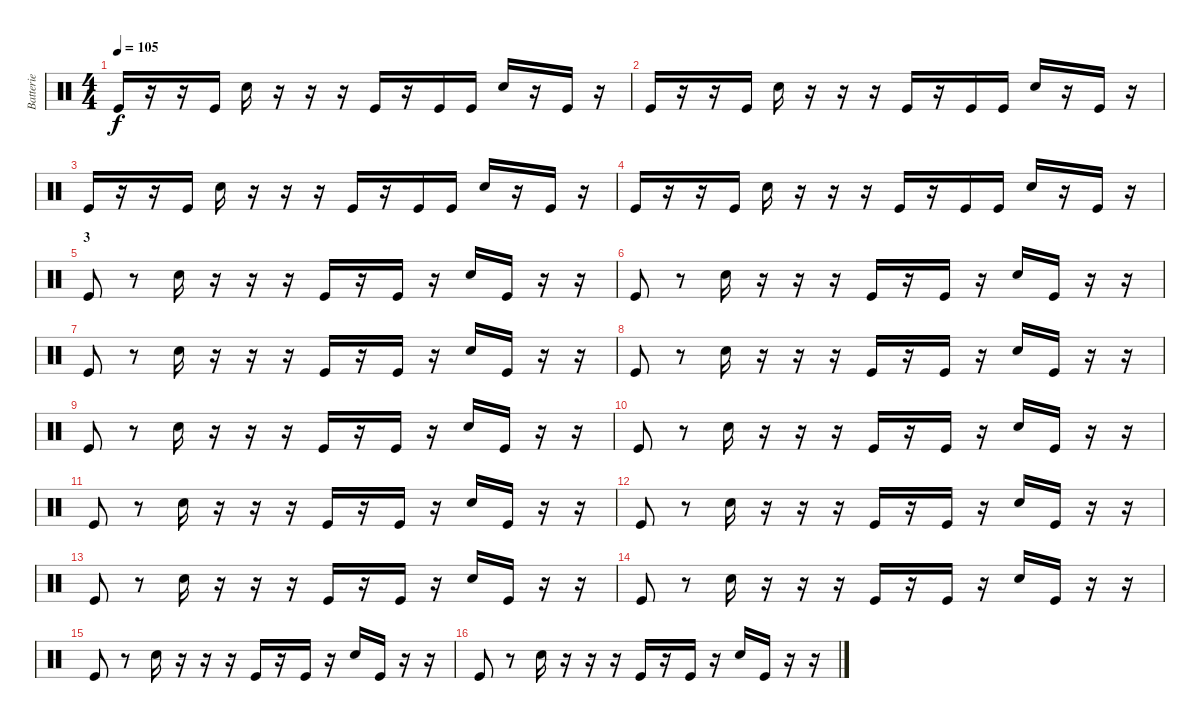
\track ("Batterie" "Batterie") {instrument percussion}
\staff {score}
\articulation defaults
\ts (4 4)
\tempo 105
\clef neutral
\ks c "Kick (hit)".16{dy f}
r.16 r.16 "Kick (hit)".16 "Electric Snare (hit)".16 r.16 r.16 r.16 "Kick (hit)".16 r.16 "Kick (hit)".16 "Kick (hit)".16 "Electric Snare (hit)".16 r.16 "Kick (hit)".16 r.16 |
"Kick (hit)".16 r.16 r.16 "Kick (hit)".16 "Electric Snare (hit)".16 r.16 r.16 r.16 "Kick (hit)".16 r.16 "Kick (hit)".16 "Kick (hit)".16 "Electric Snare (hit)".16 r.16 "Kick (hit)".16 r.16 |
"Kick (hit)".16 r.16 r.16 "Kick (hit)".16 "Electric Snare (hit)".16 r.16 r.16 r.16 "Kick (hit)".16 r.16 "Kick (hit)".16 "Kick (hit)".16 "Electric Snare (hit)".16 r.16 "Kick (hit)".16 r.16 |
"Kick (hit)".16 r.16 r.16 "Kick (hit)".16 "Electric Snare (hit)".16 r.16 r.16 r.16 "Kick (hit)".16 r.16 "Kick (hit)".16 "Kick (hit)".16 "Electric Snare (hit)".16 r.16 "Kick (hit)".16 r.16 |
\section ("" "3")
"Kick (hit)".8 r.8 "Electric Snare (hit)".16 r.16 r.16 r.16 "Kick (hit)".16 r.16 "Kick (hit)".16 r.16 "Electric Snare (hit)".16 "Kick (hit)".16 r.16 r.16 |
"Kick (hit)".8 r.8 "Electric Snare (hit)".16 r.16 r.16 r.16 "Kick (hit)".16 r.16 "Kick (hit)".16 r.16 "Electric Snare (hit)".16 "Kick (hit)".16 r.16 r.16 |
"Kick (hit)".8 r.8 "Electric Snare (hit)".16 r.16 r.16 r.16 "Kick (hit)".16 r.16 "Kick (hit)".16 r.16 "Electric Snare (hit)".16 "Kick (hit)".16 r.16 r.16 |
"Kick (hit)".8 r.8 "Electric Snare (hit)".16 r.16 r.16 r.16 "Kick (hit)".16 r.16 "Kick (hit)".16 r.16 "Electric Snare (hit)".16 "Kick (hit)".16 r.16 r.16 |
"Kick (hit)".8 r.8 "Electric Snare (hit)".16 r.16 r.16 r.16 "Kick (hit)".16 r.16 "Kick (hit)".16 r.16 "Electric Snare (hit)".16 "Kick (hit)".16 r.16 r.16 |
"Kick (hit)".8 r.8 "Electric Snare (hit)".16 r.16 r.16 r.16 "Kick (hit)".16 r.16 "Kick (hit)".16 r.16 "Electric Snare (hit)".16 "Kick (hit)".16 r.16 r.16 |
"Kick (hit)".8 r.8 "Electric Snare (hit)".16 r.16 r.16 r.16 "Kick (hit)".16 r.16 "Kick (hit)".16 r.16 "Electric Snare (hit)".16 "Kick (hit)".16 r.16 r.16 |
"Kick (hit)".8 r.8 "Electric Snare (hit)".16 r.16 r.16 r.16 "Kick (hit)".16 r.16 "Kick (hit)".16 r.16 "Electric Snare (hit)".16 "Kick (hit)".16 r.16 r.16 |
"Kick (hit)".8 r.8 "Electric Snare (hit)".16 r.16 r.16 r.16 "Kick (hit)".16 r.16 "Kick (hit)".16 r.16 "Electric Snare (hit)".16 "Kick (hit)".16 r.16 r.16 |
"Kick (hit)".8 r.8 "Electric Snare (hit)".16 r.16 r.16 r.16 "Kick (hit)".16 r.16 "Kick (hit)".16 r.16 "Electric Snare (hit)".16 "Kick (hit)".16 r.16 r.16 |
"Kick (hit)".8 r.8 "Electric Snare (hit)".16 r.16 r.16 r.16 "Kick (hit)".16 r.16 "Kick (hit)".16 r.16 "Electric Snare (hit)".16 "Kick (hit)".16 r.16 r.16 |
"Kick (hit)".8 r.8 "Electric Snare (hit)".16 r.16 r.16 r.16 "Kick (hit)".16 r.16 "Kick (hit)".16 r.16 "Electric Snare (hit)".16 "Kick (hit)".16 r.16 r.16
